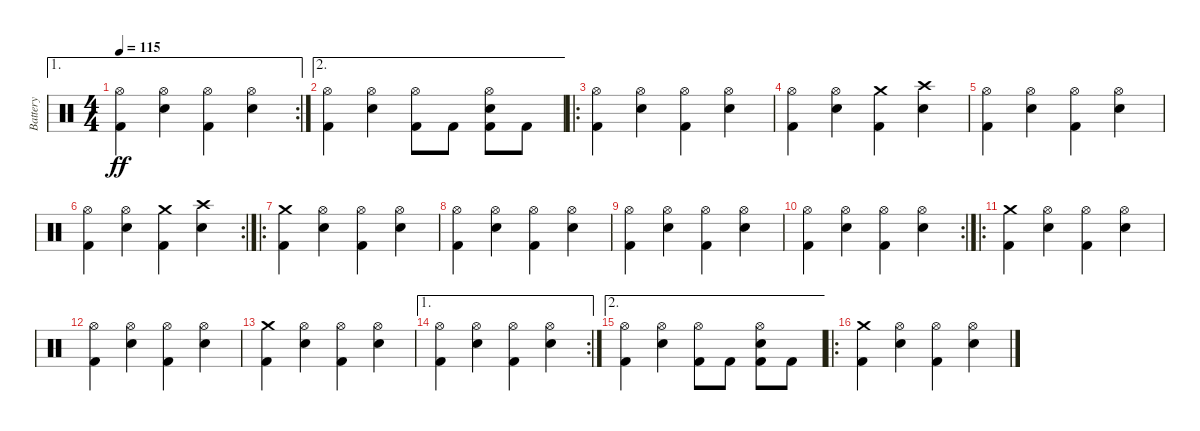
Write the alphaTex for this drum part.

\track ("Battery" "Battery") {instrument percussion}
\staff {score}
\articulation defaults
\ae 1
\rc 2
\ts (4 4)
\tempo 115
\clef neutral
\ks c
("Hi-Hat (open)" "Kick (hit) 2").4{dy ff} ("Hi-Hat (open)" "Snare (hit) 2").4 ("Hi-Hat (open)" "Kick (hit) 2").4 ("Hi-Hat (open)" "Snare (hit) 2").4 |
\ae 2
("Hi-Hat (open)" "Kick (hit) 2").4 ("Hi-Hat (open)" "Snare (hit) 2").4 ("Hi-Hat (open)" "Kick (hit) 2").8 "Kick (hit) 2".8 ("Hi-Hat (open)" "Snare (hit) 2" "Kick (hit) 2").8 "Kick (hit) 2".8 |
\ro
("Hi-Hat (open)" "Kick (hit) 2").4 ("Hi-Hat (open)" "Snare (hit) 2").4 ("Hi-Hat (open)" "Kick (hit) 2").4 ("Hi-Hat (open)" "Snare (hit) 2").4 |
("Hi-Hat (open)" "Kick (hit) 2").4 ("Hi-Hat (open)" "Snare (hit) 2").4 ("Crash medium (hit)" "Kick (hit) 2").4 ("Crash high (hit)" "Snare (hit) 2").4 |
("Hi-Hat (open)" "Kick (hit) 2").4 ("Hi-Hat (open)" "Snare (hit) 2").4 ("Hi-Hat (open)" "Kick (hit) 2").4 ("Hi-Hat (open)" "Snare (hit) 2").4 |
\rc 2
("Hi-Hat (open)" "Kick (hit) 2").4 ("Hi-Hat (open)" "Snare (hit) 2").4 ("Crash medium (hit)" "Kick (hit) 2").4 ("Crash high (hit)" "Snare (hit) 2").4 |
\ro
("Crash medium (hit)" "Kick (hit) 2").4 ("Hi-Hat (open)" "Snare (hit) 2").4 ("Hi-Hat (open)" "Kick (hit) 2").4 ("Hi-Hat (open)" "Snare (hit) 2").4 |
("Hi-Hat (open)" "Kick (hit) 2").4 ("Hi-Hat (open)" "Snare (hit) 2").4 ("Hi-Hat (open)" "Kick (hit) 2").4 ("Hi-Hat (open)" "Snare (hit) 2").4 |
("Hi-Hat (open)" "Kick (hit) 2").4 ("Hi-Hat (open)" "Snare (hit) 2").4 ("Hi-Hat (open)" "Kick (hit) 2").4 ("Hi-Hat (open)" "Snare (hit) 2").4 |
\rc 2
("Hi-Hat (open)" "Kick (hit) 2").4 ("Hi-Hat (open)" "Snare (hit) 2").4 ("Hi-Hat (open)" "Kick (hit) 2").4 ("Hi-Hat (open)" "Snare (hit) 2").4 |
\ro
("Crash medium (hit)" "Kick (hit) 2").4 ("Hi-Hat (open)" "Snare (hit) 2").4 ("Hi-Hat (open)" "Kick (hit) 2").4 ("Hi-Hat (open)" "Snare (hit) 2").4 |
("Hi-Hat (open)" "Kick (hit) 2").4 ("Hi-Hat (open)" "Snare (hit) 2").4 ("Hi-Hat (open)" "Kick (hit) 2").4 ("Hi-Hat (open)" "Snare (hit) 2").4 |
("Crash medium (hit)" "Kick (hit) 2").4 ("Hi-Hat (open)" "Snare (hit) 2").4 ("Hi-Hat (open)" "Kick (hit) 2").4 ("Hi-Hat (open)" "Snare (hit) 2").4 |
\ae 1
\rc 2
("Hi-Hat (open)" "Kick (hit) 2").4 ("Hi-Hat (open)" "Snare (hit) 2").4 ("Hi-Hat (open)" "Kick (hit) 2").4 ("Hi-Hat (open)" "Snare (hit) 2").4 |
\ae 2
("Hi-Hat (open)" "Kick (hit) 2").4 ("Hi-Hat (open)" "Snare (hit) 2").4 ("Hi-Hat (open)" "Kick (hit) 2").8 "Kick (hit) 2".8 ("Hi-Hat (open)" "Snare (hit) 2" "Kick (hit) 2").8 "Kick (hit) 2".8 |
\ro
("Crash medium (hit)" "Kick (hit) 2").4 ("Hi-Hat (open)" "Snare (hit) 2").4 ("Hi-Hat (open)" "Kick (hit) 2").4 ("Hi-Hat (open)" "Snare (hit) 2").4
